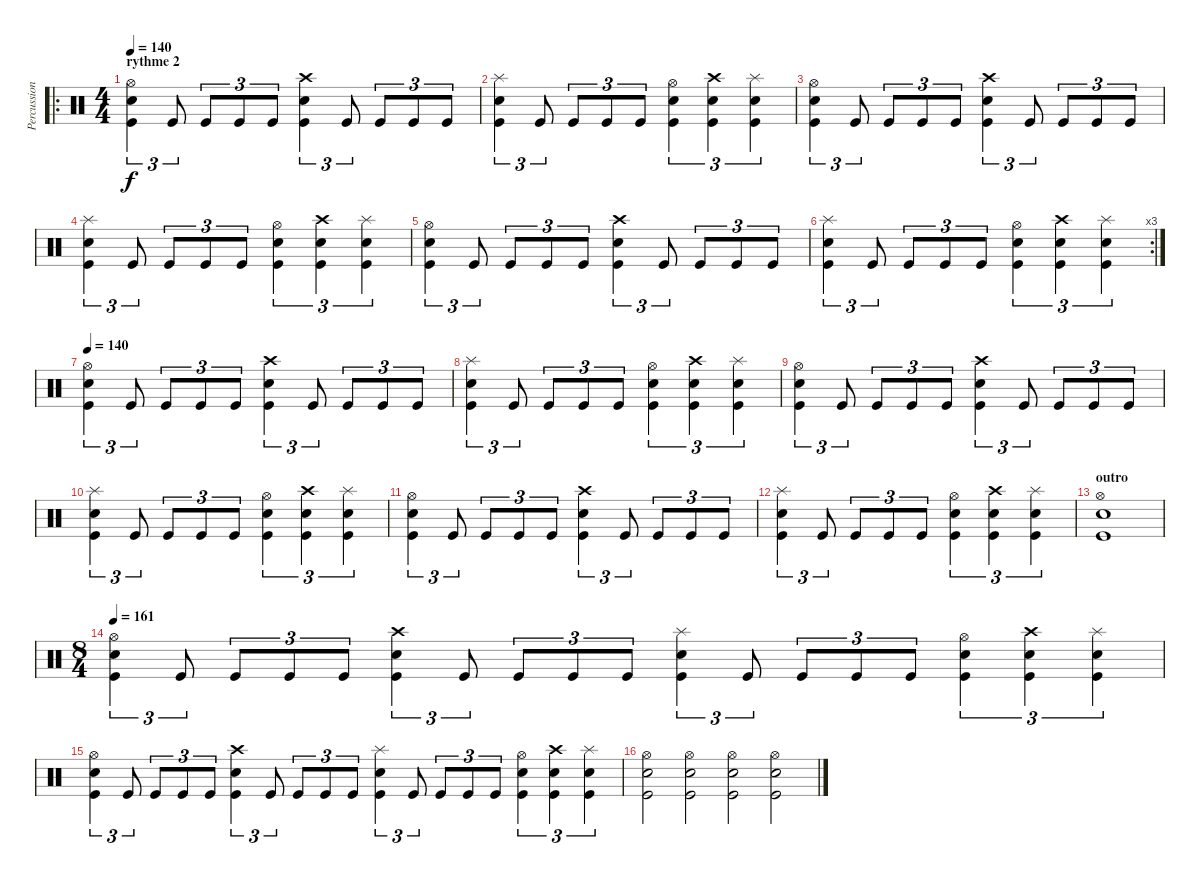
\track ("Percussions" "Percussion") {instrument percussion}
\staff {score}
\articulation defaults
\ro
\ts (4 4)
\section ("" "rythme 2")
\tempo 140
\clef neutral
\ks c
("Hi-Hat (open)" "Snare (hit) 2" "Kick (hit)").4{tu (3 2) dy f} "Kick (hit)".8{tu (3 2)} "Kick (hit)".8{tu (3 2)} "Kick (hit)".8{tu (3 2)} "Kick (hit)".8{tu (3 2)} ("Crash high (hit)" "Snare (hit) 2" "Kick (hit)").4{tu (3 2)} "Kick (hit)".8{tu (3 2)} "Kick (hit)".8{tu (3 2)} "Kick (hit)".8{tu (3 2)} "Kick (hit)".8{tu (3 2)} |
("Splash (hit)" "Snare (hit) 2" "Kick (hit)").4{tu (3 2)} "Kick (hit)".8{tu (3 2)} "Kick (hit)".8{tu (3 2)} "Kick (hit)".8{tu (3 2)} "Kick (hit)".8{tu (3 2)} ("Hi-Hat (open)" "Kick (hit)" "Snare (hit) 2").4{tu (3 2)} ("Crash high (hit)" "Kick (hit)" "Snare (hit) 2").4{tu (3 2)} ("Splash (hit)" "Kick (hit)" "Snare (hit) 2").4{tu (3 2)} |
("Hi-Hat (open)" "Snare (hit) 2" "Kick (hit)").4{tu (3 2)} "Kick (hit)".8{tu (3 2)} "Kick (hit)".8{tu (3 2)} "Kick (hit)".8{tu (3 2)} "Kick (hit)".8{tu (3 2)} ("Crash high (hit)" "Snare (hit) 2" "Kick (hit)").4{tu (3 2)} "Kick (hit)".8{tu (3 2)} "Kick (hit)".8{tu (3 2)} "Kick (hit)".8{tu (3 2)} "Kick (hit)".8{tu (3 2)} |
("Splash (hit)" "Snare (hit) 2" "Kick (hit)").4{tu (3 2)} "Kick (hit)".8{tu (3 2)} "Kick (hit)".8{tu (3 2)} "Kick (hit)".8{tu (3 2)} "Kick (hit)".8{tu (3 2)} ("Hi-Hat (open)" "Kick (hit)" "Snare (hit) 2").4{tu (3 2)} ("Crash high (hit)" "Kick (hit)" "Snare (hit) 2").4{tu (3 2)} ("Splash (hit)" "Kick (hit)" "Snare (hit) 2").4{tu (3 2)} |
("Hi-Hat (open)" "Snare (hit) 2" "Kick (hit)").4{tu (3 2)} "Kick (hit)".8{tu (3 2)} "Kick (hit)".8{tu (3 2)} "Kick (hit)".8{tu (3 2)} "Kick (hit)".8{tu (3 2)} ("Crash high (hit)" "Snare (hit) 2" "Kick (hit)").4{tu (3 2)} "Kick (hit)".8{tu (3 2)} "Kick (hit)".8{tu (3 2)} "Kick (hit)".8{tu (3 2)} "Kick (hit)".8{tu (3 2)} |
\rc 3
("Splash (hit)" "Snare (hit) 2" "Kick (hit)").4{tu (3 2)} "Kick (hit)".8{tu (3 2)} "Kick (hit)".8{tu (3 2)} "Kick (hit)".8{tu (3 2)} "Kick (hit)".8{tu (3 2)} ("Hi-Hat (open)" "Kick (hit)" "Snare (hit) 2").4{tu (3 2)} ("Crash high (hit)" "Kick (hit)" "Snare (hit) 2").4{tu (3 2)} ("Splash (hit)" "Kick (hit)" "Snare (hit) 2").4{tu (3 2)} |
\tempo 140
("Hi-Hat (open)" "Snare (hit) 2" "Kick (hit)").4{tu (3 2)} "Kick (hit)".8{tu (3 2)} "Kick (hit)".8{tu (3 2)} "Kick (hit)".8{tu (3 2)} "Kick (hit)".8{tu (3 2)} ("Crash high (hit)" "Snare (hit) 2" "Kick (hit)").4{tu (3 2)} "Kick (hit)".8{tu (3 2)} "Kick (hit)".8{tu (3 2)} "Kick (hit)".8{tu (3 2)} "Kick (hit)".8{tu (3 2)} |
("Splash (hit)" "Snare (hit) 2" "Kick (hit)").4{tu (3 2)} "Kick (hit)".8{tu (3 2)} "Kick (hit)".8{tu (3 2)} "Kick (hit)".8{tu (3 2)} "Kick (hit)".8{tu (3 2)} ("Hi-Hat (open)" "Kick (hit)" "Snare (hit) 2").4{tu (3 2)} ("Crash high (hit)" "Kick (hit)" "Snare (hit) 2").4{tu (3 2)} ("Splash (hit)" "Kick (hit)" "Snare (hit) 2").4{tu (3 2)} |
("Hi-Hat (open)" "Snare (hit) 2" "Kick (hit)").4{tu (3 2)} "Kick (hit)".8{tu (3 2)} "Kick (hit)".8{tu (3 2)} "Kick (hit)".8{tu (3 2)} "Kick (hit)".8{tu (3 2)} ("Crash high (hit)" "Snare (hit) 2" "Kick (hit)").4{tu (3 2)} "Kick (hit)".8{tu (3 2)} "Kick (hit)".8{tu (3 2)} "Kick (hit)".8{tu (3 2)} "Kick (hit)".8{tu (3 2)} |
("Splash (hit)" "Snare (hit) 2" "Kick (hit)").4{tu (3 2)} "Kick (hit)".8{tu (3 2)} "Kick (hit)".8{tu (3 2)} "Kick (hit)".8{tu (3 2)} "Kick (hit)".8{tu (3 2)} ("Hi-Hat (open)" "Kick (hit)" "Snare (hit) 2").4{tu (3 2)} ("Crash high (hit)" "Kick (hit)" "Snare (hit) 2").4{tu (3 2)} ("Splash (hit)" "Kick (hit)" "Snare (hit) 2").4{tu (3 2)} |
("Hi-Hat (open)" "Snare (hit) 2" "Kick (hit)").4{tu (3 2)} "Kick (hit)".8{tu (3 2)} "Kick (hit)".8{tu (3 2)} "Kick (hit)".8{tu (3 2)} "Kick (hit)".8{tu (3 2)} ("Crash high (hit)" "Snare (hit) 2" "Kick (hit)").4{tu (3 2)} "Kick (hit)".8{tu (3 2)} "Kick (hit)".8{tu (3 2)} "Kick (hit)".8{tu (3 2)} "Kick (hit)".8{tu (3 2)} |
("Splash (hit)" "Snare (hit) 2" "Kick (hit)").4{tu (3 2)} "Kick (hit)".8{tu (3 2)} "Kick (hit)".8{tu (3 2)} "Kick (hit)".8{tu (3 2)} "Kick (hit)".8{tu (3 2)} ("Hi-Hat (open)" "Kick (hit)" "Snare (hit) 2").4{tu (3 2)} ("Crash high (hit)" "Kick (hit)" "Snare (hit) 2").4{tu (3 2)} ("Splash (hit)" "Kick (hit)" "Snare (hit) 2").4{tu (3 2)} |
\section ("" "outro")
("Hi-Hat (open)" "Kick (hit)" "Snare (hit) 2").1 |
\ts (8 4)
\tempo 161
("Hi-Hat (open)" "Snare (hit) 2" "Kick (hit)").4{tu (3 2)} "Kick (hit)".8{tu (3 2)} "Kick (hit)".8{tu (3 2)} "Kick (hit)".8{tu (3 2)} "Kick (hit)".8{tu (3 2)} ("Crash high (hit)" "Snare (hit) 2" "Kick (hit)").4{tu (3 2)} "Kick (hit)".8{tu (3 2)} "Kick (hit)".8{tu (3 2)} "Kick (hit)".8{tu (3 2)} "Kick (hit)".8{tu (3 2)} ("Splash (hit)" "Snare (hit) 2" "Kick (hit)").4{tu (3 2)} "Kick (hit)".8{tu (3 2)} "Kick (hit)".8{tu (3 2)} "Kick (hit)".8{tu (3 2)} "Kick (hit)".8{tu (3 2)} ("Hi-Hat (open)" "Snare (hit) 2" "Kick (hit)").4{tu (3 2)} ("Crash high (hit)" "Snare (hit) 2" "Kick (hit)").4{tu (3 2)} ("Splash (hit)" "Snare (hit) 2" "Kick (hit)").4{tu (3 2)} |
("Hi-Hat (open)" "Snare (hit) 2" "Kick (hit)").4{tu (3 2)} "Kick (hit)".8{tu (3 2)} "Kick (hit)".8{tu (3 2)} "Kick (hit)".8{tu (3 2)} "Kick (hit)".8{tu (3 2)} ("Crash high (hit)" "Snare (hit) 2" "Kick (hit)").4{tu (3 2)} "Kick (hit)".8{tu (3 2)} "Kick (hit)".8{tu (3 2)} "Kick (hit)".8{tu (3 2)} "Kick (hit)".8{tu (3 2)} ("Splash (hit)" "Snare (hit) 2" "Kick (hit)").4{tu (3 2)} "Kick (hit)".8{tu (3 2)} "Kick (hit)".8{tu (3 2)} "Kick (hit)".8{tu (3 2)} "Kick (hit)".8{tu (3 2)} ("Hi-Hat (open)" "Snare (hit) 2" "Kick (hit)").4{tu (3 2)} ("Crash high (hit)" "Snare (hit) 2" "Kick (hit)").4{tu (3 2)} ("Splash (hit)" "Snare (hit) 2" "Kick (hit)").4{tu (3 2)} |
("Hi-Hat (open)" "Snare (hit) 2" "Kick (hit)").2 ("Hi-Hat (open)" "Snare (hit) 2" "Kick (hit)").2 ("Hi-Hat (open)" "Snare (hit) 2" "Kick (hit)").2 ("Hi-Hat (open)" "Snare (hit) 2" "Kick (hit)").2
